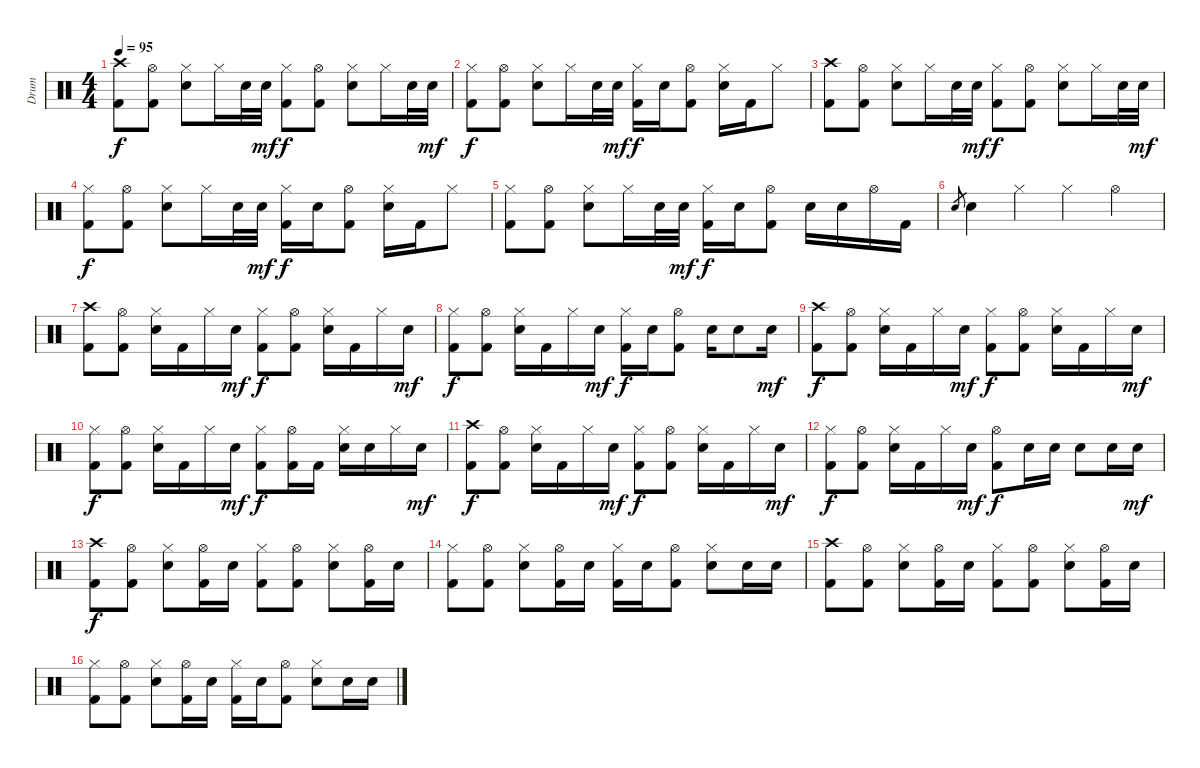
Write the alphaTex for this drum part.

\track ("Drum" "Drum") {instrument percussion}
\staff {score}
\articulation defaults
\ts (4 4)
\tempo 95
\clef neutral
\ks c
("Crash high (hit)" "Kick (hit) 2").8{dy f} ("Hi-Hat (open)" "Kick (hit) 2").8 ("Hi-Hat (closed)" "Electric Snare (hit)").8 "Hi-Hat (closed)".16 "Electric Snare (hit)".32 "Electric Snare (hit)".32{dy mf} ("Hi-Hat (closed)" "Kick (hit) 2").8{dy f} ("Hi-Hat (open)" "Kick (hit) 2").8 ("Hi-Hat (closed)" "Electric Snare (hit)").8 "Hi-Hat (closed)".16 "Electric Snare (hit)".32 "Electric Snare (hit)".32{dy mf} |
("Hi-Hat (closed)" "Kick (hit) 2").8{dy f} ("Hi-Hat (open)" "Kick (hit) 2").8 ("Hi-Hat (closed)" "Electric Snare (hit)").8 "Hi-Hat (closed)".16 "Electric Snare (hit)".32 "Electric Snare (hit)".32{dy mf} ("Hi-Hat (closed)" "Kick (hit) 2").16{dy f} "Electric Snare (hit)".16 ("Hi-Hat (open)" "Kick (hit) 2").8 ("Hi-Hat (closed)" "Electric Snare (hit)").16 "Kick (hit) 2".16 "Hi-Hat (closed)".8 |
("Crash high (hit)" "Kick (hit) 2").8 ("Hi-Hat (open)" "Kick (hit) 2").8 ("Hi-Hat (closed)" "Electric Snare (hit)").8 "Hi-Hat (closed)".16 "Electric Snare (hit)".32 "Electric Snare (hit)".32{dy mf} ("Hi-Hat (closed)" "Kick (hit) 2").8{dy f} ("Hi-Hat (open)" "Kick (hit) 2").8 ("Hi-Hat (closed)" "Electric Snare (hit)").8 "Hi-Hat (closed)".16 "Electric Snare (hit)".32 "Electric Snare (hit)".32{dy mf} |
("Hi-Hat (closed)" "Kick (hit) 2").8{dy f} ("Hi-Hat (open)" "Kick (hit) 2").8 ("Hi-Hat (closed)" "Electric Snare (hit)").8 "Hi-Hat (closed)".16 "Electric Snare (hit)".32 "Electric Snare (hit)".32{dy mf} ("Hi-Hat (closed)" "Kick (hit) 2").16{dy f} "Electric Snare (hit)".16 ("Hi-Hat (open)" "Kick (hit) 2").8 ("Hi-Hat (closed)" "Electric Snare (hit)").16 "Kick (hit) 2".16 "Hi-Hat (closed)".8 |
("Hi-Hat (closed)" "Kick (hit) 2").8 ("Hi-Hat (open)" "Kick (hit) 2").8 ("Hi-Hat (closed)" "Electric Snare (hit)").8 "Hi-Hat (closed)".16 "Electric Snare (hit)".32 "Electric Snare (hit)".32{dy mf} ("Hi-Hat (closed)" "Kick (hit) 2").16{dy f} "Electric Snare (hit)".16 ("Hi-Hat (open)" "Kick (hit) 2").8 "Electric Snare (hit)".16 "Electric Snare (hit)".16 "Hi-Hat (open)".16 "Kick (hit) 2".16 |
"Electric Snare (hit)".8{gr} "Electric Snare (hit)".4 "Hi-Hat (closed)".4 "Hi-Hat (closed)".4 "Hi-Hat (open)".4 |
("Crash high (hit)" "Kick (hit) 2").8 ("Hi-Hat (open)" "Kick (hit) 2").8 ("Hi-Hat (closed)" "Electric Snare (hit)").16 "Kick (hit) 2".16 "Hi-Hat (closed)".16 "Electric Snare (hit)".16{dy mf} ("Hi-Hat (closed)" "Kick (hit) 2").8{dy f} ("Hi-Hat (open)" "Kick (hit) 2").8 ("Hi-Hat (closed)" "Electric Snare (hit)").16 "Kick (hit) 2".16 "Hi-Hat (closed)".16 "Electric Snare (hit)".16{dy mf} |
("Hi-Hat (closed)" "Kick (hit) 2").8{dy f} ("Hi-Hat (open)" "Kick (hit) 2").8 ("Hi-Hat (closed)" "Electric Snare (hit)").16 "Kick (hit) 2".16 "Hi-Hat (closed)".16 "Electric Snare (hit)".16{dy mf} ("Hi-Hat (closed)" "Kick (hit) 2").16{dy f} "Electric Snare (hit)".16 ("Hi-Hat (open)" "Kick (hit) 2").8 "Electric Snare (hit)".16 "Electric Snare (hit)".8 "Electric Snare (hit)".16{dy mf} |
("Crash high (hit)" "Kick (hit) 2").8{dy f} ("Hi-Hat (open)" "Kick (hit) 2").8 ("Hi-Hat (closed)" "Electric Snare (hit)").16 "Kick (hit) 2".16 "Hi-Hat (closed)".16 "Electric Snare (hit)".16{dy mf} ("Hi-Hat (closed)" "Kick (hit) 2").8{dy f} ("Hi-Hat (open)" "Kick (hit) 2").8 ("Hi-Hat (closed)" "Electric Snare (hit)").16 "Kick (hit) 2".16 "Hi-Hat (closed)".16 "Electric Snare (hit)".16{dy mf} |
("Hi-Hat (closed)" "Kick (hit) 2").8{dy f} ("Hi-Hat (open)" "Kick (hit) 2").8 ("Hi-Hat (closed)" "Electric Snare (hit)").16 "Kick (hit) 2".16 "Hi-Hat (closed)".16 "Electric Snare (hit)".16{dy mf} ("Hi-Hat (closed)" "Kick (hit) 2").8{dy f} ("Hi-Hat (open)" "Kick (hit) 2").16 "Kick (hit) 2".16 ("Hi-Hat (closed)" "Electric Snare (hit)").16 "Electric Snare (hit)".16 "Hi-Hat (closed)".16 "Electric Snare (hit)".16{dy mf} |
("Crash high (hit)" "Kick (hit) 2").8{dy f} ("Hi-Hat (open)" "Kick (hit) 2").8 ("Hi-Hat (closed)" "Electric Snare (hit)").16 "Kick (hit) 2".16 "Hi-Hat (closed)".16 "Electric Snare (hit)".16{dy mf} ("Hi-Hat (closed)" "Kick (hit) 2").8{dy f} ("Hi-Hat (open)" "Kick (hit) 2").8 ("Hi-Hat (closed)" "Electric Snare (hit)").16 "Kick (hit) 2".16 "Hi-Hat (closed)".16 "Electric Snare (hit)".16{dy mf} |
("Hi-Hat (closed)" "Kick (hit) 2").8{dy f} ("Hi-Hat (open)" "Kick (hit) 2").8 ("Hi-Hat (closed)" "Electric Snare (hit)").16 "Kick (hit) 2".16 "Hi-Hat (closed)".16 "Electric Snare (hit)".16{dy mf} ("Hi-Hat (open)" "Kick (hit) 2").8{dy f} "Electric Snare (hit)".16 "Electric Snare (hit)".16 "Electric Snare (hit)".8 "Electric Snare (hit)".16 "Electric Snare (hit)".16{dy mf} |
("Crash high (hit)" "Kick (hit) 2").8{dy f} ("Hi-Hat (open)" "Kick (hit) 2").8 ("Hi-Hat (closed)" "Electric Snare (hit)").8 ("Hi-Hat (open)" "Kick (hit) 2").16 "Electric Snare (hit)".16 ("Hi-Hat (closed)" "Kick (hit) 2").8 ("Hi-Hat (open)" "Kick (hit) 2").8 ("Hi-Hat (closed)" "Electric Snare (hit)").8 ("Hi-Hat (open)" "Kick (hit) 2").16 "Electric Snare (hit)".16 |
("Hi-Hat (closed)" "Kick (hit) 2").8 ("Hi-Hat (open)" "Kick (hit) 2").8 ("Hi-Hat (closed)" "Electric Snare (hit)").8 ("Hi-Hat (open)" "Kick (hit) 2").16 "Electric Snare (hit)".16 ("Hi-Hat (closed)" "Kick (hit) 2").16 "Electric Snare (hit)".16 ("Hi-Hat (open)" "Kick (hit) 2").8 ("Hi-Hat (closed)" "Electric Snare (hit)").8 "Electric Snare (hit)".16 "Electric Snare (hit)".16 |
("Crash high (hit)" "Kick (hit) 2").8 ("Hi-Hat (open)" "Kick (hit) 2").8 ("Hi-Hat (closed)" "Electric Snare (hit)").8 ("Hi-Hat (open)" "Kick (hit) 2").16 "Electric Snare (hit)".16 ("Hi-Hat (closed)" "Kick (hit) 2").8 ("Hi-Hat (open)" "Kick (hit) 2").8 ("Hi-Hat (closed)" "Electric Snare (hit)").8 ("Hi-Hat (open)" "Kick (hit) 2").16 "Electric Snare (hit)".16 |
("Hi-Hat (closed)" "Kick (hit) 2").8 ("Hi-Hat (open)" "Kick (hit) 2").8 ("Hi-Hat (closed)" "Electric Snare (hit)").8 ("Hi-Hat (open)" "Kick (hit) 2").16 "Electric Snare (hit)".16 ("Hi-Hat (closed)" "Kick (hit) 2").16 "Electric Snare (hit)".16 ("Hi-Hat (open)" "Kick (hit) 2").8 ("Hi-Hat (closed)" "Electric Snare (hit)").8 "Electric Snare (hit)".16 "Electric Snare (hit)".16
